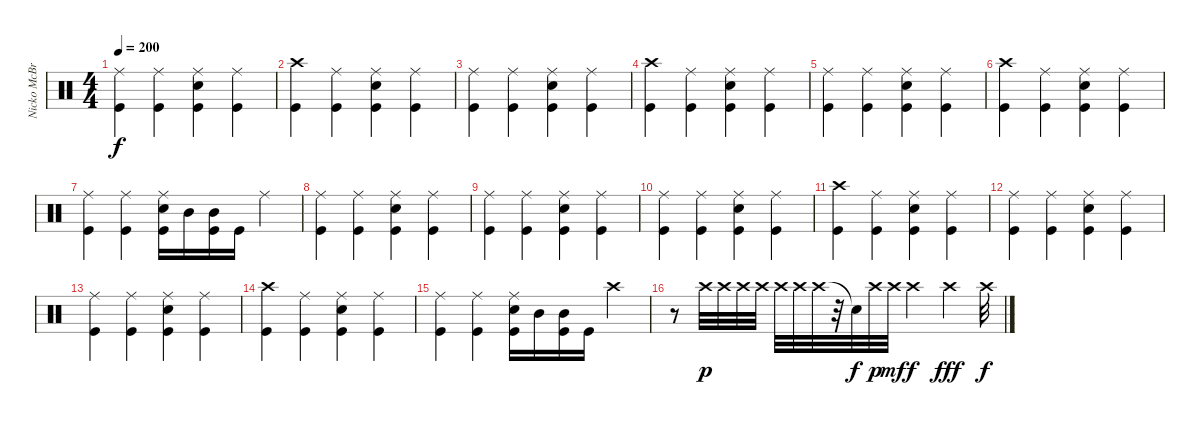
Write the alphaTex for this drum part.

\track ("Nicko McBrain" "Nicko McBr") {instrument percussion}
\staff {score}
\articulation defaults
\ts (4 4)
\tempo 200
\clef neutral
\ks c
("Ride (middle)" "Kick (hit)").4{dy f} ("Ride (middle)" "Kick (hit)").4 ("Ride (middle)" "Electric Snare (hit)" "Kick (hit)").4 ("Ride (middle)" "Kick (hit)").4 |
("Crash high (hit)" "Kick (hit)").4 ("Ride (middle)" "Kick (hit)").4 ("Ride (middle)" "Electric Snare (hit)" "Kick (hit)").4 ("Ride (middle)" "Kick (hit)").4 |
("Ride (middle)" "Kick (hit)").4 ("Ride (middle)" "Kick (hit)").4 ("Ride (middle)" "Electric Snare (hit)" "Kick (hit)").4 ("Ride (middle)" "Kick (hit)").4 |
("Crash high (hit)" "Kick (hit)").4 ("Ride (middle)" "Kick (hit)").4 ("Ride (middle)" "Electric Snare (hit)" "Kick (hit)").4 ("Ride (middle)" "Kick (hit)").4 |
("Ride (middle)" "Kick (hit)").4 ("Ride (middle)" "Kick (hit)").4 ("Ride (middle)" "Electric Snare (hit)" "Kick (hit)").4 ("Ride (middle)" "Kick (hit)").4 |
("Crash high (hit)" "Kick (hit)").4 ("Ride (middle)" "Kick (hit)").4 ("Ride (middle)" "Electric Snare (hit)" "Kick (hit)").4 ("Ride (middle)" "Kick (hit)").4 |
("Ride (middle)" "Kick (hit)").4 ("Ride (middle)" "Kick (hit)").4 ("Ride (middle)" "Electric Snare (hit)" "Kick (hit)").16 "Mid Tom (hit)".16 ("Mid Tom (hit)" "Kick (hit)").16 "Kick (hit)".16 "Ride (middle)".4 |
("Ride (middle)" "Kick (hit)").4 ("Ride (middle)" "Kick (hit)").4 ("Ride (middle)" "Electric Snare (hit)" "Kick (hit)").4 ("Ride (middle)" "Kick (hit)").4 |
("Ride (middle)" "Kick (hit)").4 ("Ride (middle)" "Kick (hit)").4 ("Ride (middle)" "Electric Snare (hit)" "Kick (hit)").4 ("Ride (middle)" "Kick (hit)").4 |
("Ride (middle)" "Kick (hit)").4 ("Ride (middle)" "Kick (hit)").4 ("Ride (middle)" "Electric Snare (hit)" "Kick (hit)").4 ("Ride (middle)" "Kick (hit)").4 |
("Crash high (hit)" "Kick (hit)").4 ("Ride (middle)" "Kick (hit)").4 ("Ride (middle)" "Electric Snare (hit)" "Kick (hit)").4 ("Ride (middle)" "Kick (hit)").4 |
("Ride (middle)" "Kick (hit)").4 ("Ride (middle)" "Kick (hit)").4 ("Ride (middle)" "Electric Snare (hit)" "Kick (hit)").4 ("Ride (middle)" "Kick (hit)").4 |
("Ride (middle)" "Kick (hit)").4 ("Ride (middle)" "Kick (hit)").4 ("Ride (middle)" "Electric Snare (hit)" "Kick (hit)").4 ("Ride (middle)" "Kick (hit)").4 |
("Crash high (hit)" "Kick (hit)").4 ("Ride (middle)" "Kick (hit)").4 ("Ride (middle)" "Electric Snare (hit)" "Kick (hit)").4 ("Ride (middle)" "Kick (hit)").4 |
("Ride (middle)" "Kick (hit)").4 ("Ride (middle)" "Kick (hit)").4 ("Ride (middle)" "Electric Snare (hit)" "Kick (hit)").16 "Mid Tom (hit)".16 ("Mid Tom (hit)" "Kick (hit)").16 "Kick (hit)".16 "Crash high (hit)".4 |
r.8 "Crash high (hit)".32{dy p} "Crash high (hit)".32 "Crash high (hit)".32 "Crash high (hit)".32 "Crash high (hit)".32 "Crash high (hit)".32 "Crash high (hit)".32 r.32 "Snare (hit)"{t}.32{dy f} "Crash high (hit)".32{dy p} "Crash high (hit)".32{dy mf} "Crash high (hit)".4{dy f} "Crash high (hit)".4{dy fff} "Crash high (hit)".32{dy f}
